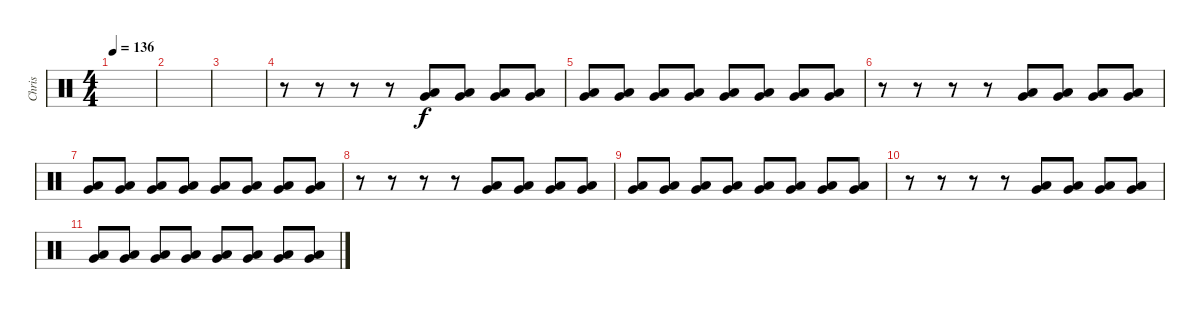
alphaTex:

\track ("Chris" "Chris") {instrument percussion}
\staff {score}
\articulation defaults
\ts (4 4)
\tempo 136
\clef neutral
\ks c
|
|
|
r.8 r.8 r.8 r.8 ("Very Low Tom (hit)" "Low Floor Tom (hit)").8 ("Very Low Tom (hit)" "Low Floor Tom (hit)").8 ("Very Low Tom (hit)" "Low Floor Tom (hit)").8 ("Very Low Tom (hit)" "Low Floor Tom (hit)").8 |
("Very Low Tom (hit)" "Low Floor Tom (hit)").8 ("Very Low Tom (hit)" "Low Floor Tom (hit)").8 ("Very Low Tom (hit)" "Low Floor Tom (hit)").8 ("Very Low Tom (hit)" "Low Floor Tom (hit)").8 ("Very Low Tom (hit)" "Low Floor Tom (hit)").8 ("Very Low Tom (hit)" "Low Floor Tom (hit)").8 ("Very Low Tom (hit)" "Low Floor Tom (hit)").8 ("Very Low Tom (hit)" "Low Floor Tom (hit)").8 |
r.8 r.8 r.8 r.8 ("Very Low Tom (hit)" "Low Floor Tom (hit)").8 ("Very Low Tom (hit)" "Low Floor Tom (hit)").8 ("Very Low Tom (hit)" "Low Floor Tom (hit)").8 ("Very Low Tom (hit)" "Low Floor Tom (hit)").8 |
("Very Low Tom (hit)" "Low Floor Tom (hit)").8 ("Very Low Tom (hit)" "Low Floor Tom (hit)").8 ("Very Low Tom (hit)" "Low Floor Tom (hit)").8 ("Very Low Tom (hit)" "Low Floor Tom (hit)").8 ("Very Low Tom (hit)" "Low Floor Tom (hit)").8 ("Very Low Tom (hit)" "Low Floor Tom (hit)").8 ("Very Low Tom (hit)" "Low Floor Tom (hit)").8 ("Very Low Tom (hit)" "Low Floor Tom (hit)").8 |
r.8 r.8 r.8 r.8 ("Very Low Tom (hit)" "Low Floor Tom (hit)").8 ("Very Low Tom (hit)" "Low Floor Tom (hit)").8 ("Very Low Tom (hit)" "Low Floor Tom (hit)").8 ("Very Low Tom (hit)" "Low Floor Tom (hit)").8 |
("Very Low Tom (hit)" "Low Floor Tom (hit)").8 ("Very Low Tom (hit)" "Low Floor Tom (hit)").8 ("Very Low Tom (hit)" "Low Floor Tom (hit)").8 ("Very Low Tom (hit)" "Low Floor Tom (hit)").8 ("Very Low Tom (hit)" "Low Floor Tom (hit)").8 ("Very Low Tom (hit)" "Low Floor Tom (hit)").8 ("Very Low Tom (hit)" "Low Floor Tom (hit)").8 ("Very Low Tom (hit)" "Low Floor Tom (hit)").8 |
r.8 r.8 r.8 r.8 ("Very Low Tom (hit)" "Low Floor Tom (hit)").8 ("Very Low Tom (hit)" "Low Floor Tom (hit)").8 ("Very Low Tom (hit)" "Low Floor Tom (hit)").8 ("Very Low Tom (hit)" "Low Floor Tom (hit)").8 |
("Very Low Tom (hit)" "Low Floor Tom (hit)").8 ("Very Low Tom (hit)" "Low Floor Tom (hit)").8 ("Very Low Tom (hit)" "Low Floor Tom (hit)").8 ("Very Low Tom (hit)" "Low Floor Tom (hit)").8 ("Very Low Tom (hit)" "Low Floor Tom (hit)").8 ("Very Low Tom (hit)" "Low Floor Tom (hit)").8 ("Very Low Tom (hit)" "Low Floor Tom (hit)").8 ("Very Low Tom (hit)" "Low Floor Tom (hit)").8
